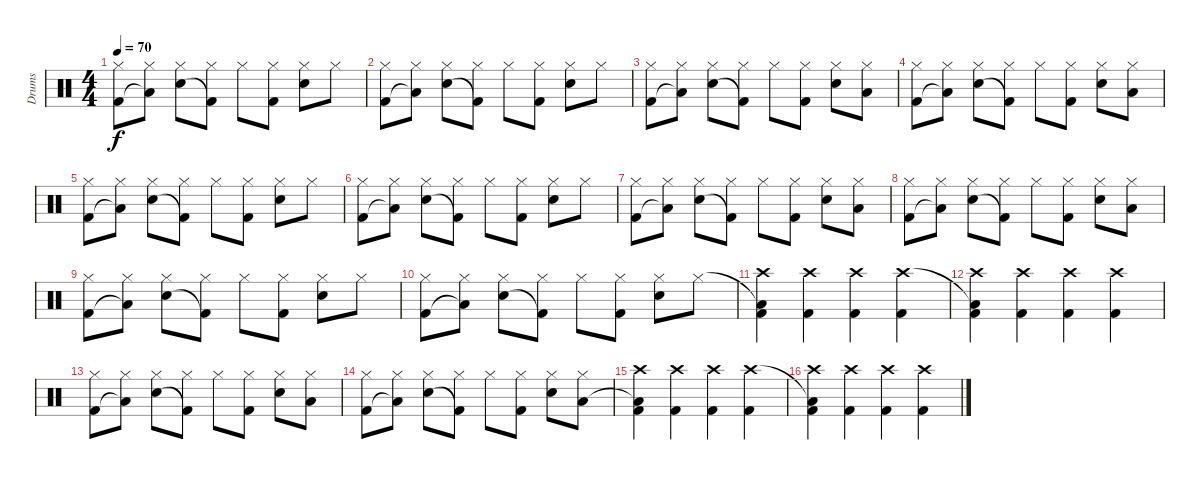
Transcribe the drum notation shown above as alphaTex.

\track ("Drums" "Drums") {instrument percussion}
\staff {score}
\articulation defaults
\ts (4 4)
\tempo 70
\clef neutral
\ks c
("Kick (hit) 2" "Hi-Hat (closed)").8{dy f} ("Low Floor Tom (hit)"{t} "Hi-Hat (closed)").8 ("Electric Snare (hit)" "Hi-Hat (closed)").8 ("Kick (hit) 2"{t} "Hi-Hat (closed)").8 "Hi-Hat (closed)".8 ("Kick (hit) 2" "Hi-Hat (closed)").8 ("Electric Snare (hit)" "Hi-Hat (closed)").8 "Hi-Hat (closed)".8 |
("Kick (hit) 2" "Hi-Hat (closed)").8 ("Low Floor Tom (hit)"{t} "Hi-Hat (closed)").8 ("Electric Snare (hit)" "Hi-Hat (closed)").8 ("Kick (hit) 2"{t} "Hi-Hat (closed)").8 "Hi-Hat (closed)".8 ("Kick (hit) 2" "Hi-Hat (closed)").8 ("Electric Snare (hit)" "Hi-Hat (closed)").8 "Hi-Hat (closed)".8 |
("Kick (hit) 2" "Hi-Hat (closed)").8 ("Low Floor Tom (hit)"{t} "Hi-Hat (closed)").8 ("Electric Snare (hit)" "Hi-Hat (closed)").8 ("Kick (hit) 2"{t} "Hi-Hat (closed)").8 "Hi-Hat (closed)".8 ("Kick (hit) 2" "Hi-Hat (closed)").8 ("Electric Snare (hit)" "Hi-Hat (closed)").8 ("Low Floor Tom (hit)" "Hi-Hat (closed)").8 |
("Kick (hit) 2" "Hi-Hat (closed)").8 ("Low Floor Tom (hit)"{t} "Hi-Hat (closed)").8 ("Electric Snare (hit)" "Hi-Hat (closed)").8 ("Kick (hit) 2"{t} "Hi-Hat (closed)").8 "Hi-Hat (closed)".8 ("Kick (hit) 2" "Hi-Hat (closed)").8 ("Electric Snare (hit)" "Hi-Hat (closed)").8 ("Low Floor Tom (hit)" "Hi-Hat (closed)").8 |
("Kick (hit) 2" "Hi-Hat (closed)").8 ("Low Floor Tom (hit)"{t} "Hi-Hat (closed)").8 ("Electric Snare (hit)" "Hi-Hat (closed)").8 ("Kick (hit) 2"{t} "Hi-Hat (closed)").8 "Hi-Hat (closed)".8 ("Kick (hit) 2" "Hi-Hat (closed)").8 ("Electric Snare (hit)" "Hi-Hat (closed)").8 "Hi-Hat (closed)".8 |
("Kick (hit) 2" "Hi-Hat (closed)").8 ("Low Floor Tom (hit)"{t} "Hi-Hat (closed)").8 ("Electric Snare (hit)" "Hi-Hat (closed)").8 ("Kick (hit) 2"{t} "Hi-Hat (closed)").8 "Hi-Hat (closed)".8 ("Kick (hit) 2" "Hi-Hat (closed)").8 ("Electric Snare (hit)" "Hi-Hat (closed)").8 "Hi-Hat (closed)".8 |
("Kick (hit) 2" "Hi-Hat (closed)").8 ("Low Floor Tom (hit)"{t} "Hi-Hat (closed)").8 ("Electric Snare (hit)" "Hi-Hat (closed)").8 ("Kick (hit) 2"{t} "Hi-Hat (closed)").8 "Hi-Hat (closed)".8 ("Kick (hit) 2" "Hi-Hat (closed)").8 ("Electric Snare (hit)" "Hi-Hat (closed)").8 ("Low Floor Tom (hit)" "Hi-Hat (closed)").8 |
("Kick (hit) 2" "Hi-Hat (closed)").8 ("Low Floor Tom (hit)"{t} "Hi-Hat (closed)").8 ("Electric Snare (hit)" "Hi-Hat (closed)").8 ("Kick (hit) 2"{t} "Hi-Hat (closed)").8 "Hi-Hat (closed)".8 ("Kick (hit) 2" "Hi-Hat (closed)").8 ("Electric Snare (hit)" "Hi-Hat (closed)").8 ("Low Floor Tom (hit)" "Hi-Hat (closed)").8 |
("Kick (hit) 2" "Hi-Hat (closed)").8 ("Low Floor Tom (hit)"{t} "Hi-Hat (closed)").8 ("Electric Snare (hit)" "Hi-Hat (closed)").8 ("Kick (hit) 2"{t} "Hi-Hat (closed)").8 "Hi-Hat (closed)".8 ("Kick (hit) 2" "Hi-Hat (closed)").8 ("Electric Snare (hit)" "Hi-Hat (closed)").8 "Hi-Hat (closed)".8 |
("Kick (hit) 2" "Hi-Hat (closed)").8 ("Low Floor Tom (hit)"{t} "Hi-Hat (closed)").8 ("Electric Snare (hit)" "Hi-Hat (closed)").8 ("Kick (hit) 2"{t} "Hi-Hat (closed)").8 "Hi-Hat (closed)".8 ("Kick (hit) 2" "Hi-Hat (closed)").8 ("Electric Snare (hit)" "Hi-Hat (closed)").8 "Hi-Hat (closed)".8 |
("Low Floor Tom (hit)"{t} "Crash high (hit)" "Kick (hit) 2").4 ("Crash high (hit)" "Kick (hit) 2").4 ("Crash high (hit)" "Kick (hit) 2").4 ("Crash high (hit)" "Kick (hit) 2").4 |
("Low Floor Tom (hit)"{t} "Crash high (hit)" "Kick (hit) 2").4 ("Crash high (hit)" "Kick (hit) 2").4 ("Crash high (hit)" "Kick (hit) 2").4 ("Crash high (hit)" "Kick (hit) 2").4 |
("Kick (hit) 2" "Hi-Hat (closed)").8 ("Low Floor Tom (hit)"{t} "Hi-Hat (closed)").8 ("Electric Snare (hit)" "Hi-Hat (closed)").8 ("Kick (hit) 2"{t} "Hi-Hat (closed)").8 "Hi-Hat (closed)".8 ("Kick (hit) 2" "Hi-Hat (closed)").8 ("Electric Snare (hit)" "Hi-Hat (closed)").8 ("Low Floor Tom (hit)" "Hi-Hat (closed)").8 |
("Kick (hit) 2" "Hi-Hat (closed)").8 ("Low Floor Tom (hit)"{t} "Hi-Hat (closed)").8 ("Electric Snare (hit)" "Hi-Hat (closed)").8 ("Kick (hit) 2"{t} "Hi-Hat (closed)").8 "Hi-Hat (closed)".8 ("Kick (hit) 2" "Hi-Hat (closed)").8 ("Electric Snare (hit)" "Hi-Hat (closed)").8 ("Low Floor Tom (hit)" "Hi-Hat (closed)").8 |
("Low Floor Tom (hit)"{t} "Crash high (hit)" "Kick (hit) 2").4 ("Crash high (hit)" "Kick (hit) 2").4 ("Crash high (hit)" "Kick (hit) 2").4 ("Crash high (hit)" "Kick (hit) 2").4 |
("Low Floor Tom (hit)"{t} "Crash high (hit)" "Kick (hit) 2").4 ("Crash high (hit)" "Kick (hit) 2").4 ("Crash high (hit)" "Kick (hit) 2").4 ("Crash high (hit)" "Kick (hit) 2").4
